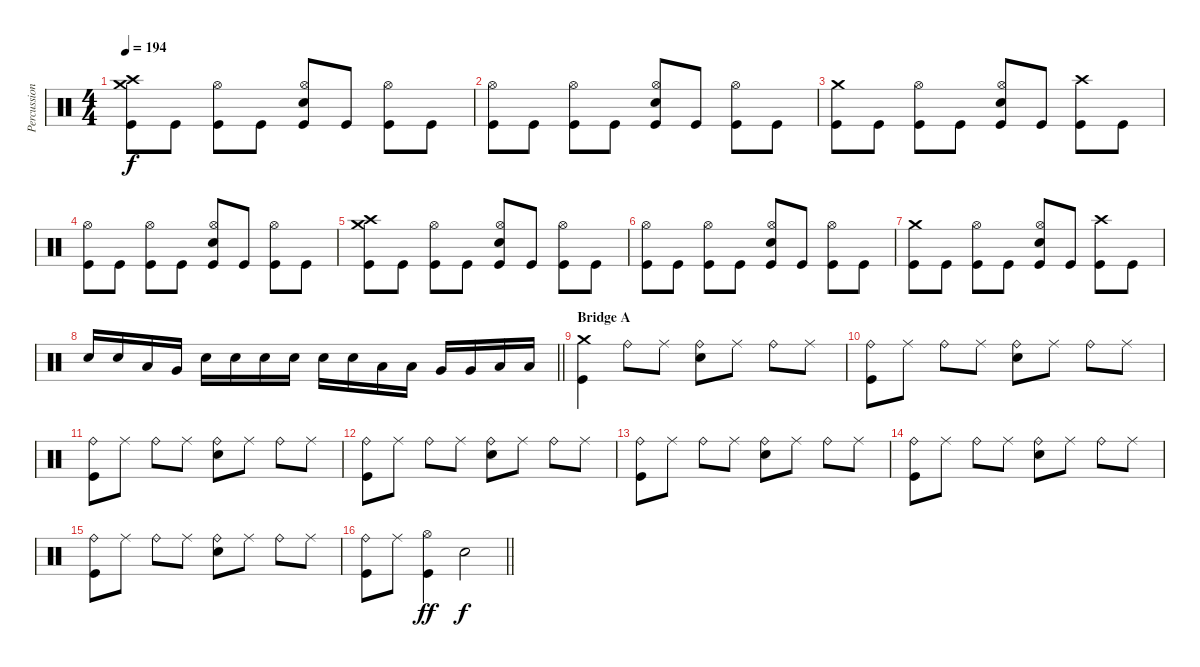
\track ("Percussion" "Percussion") {instrument percussion}
\staff {score}
\articulation defaults
\ts (4 4)
\tempo 194
\clef neutral
\ks c
("Crash medium (hit)" "Crash high (hit)" "Kick (hit)").8{dy f} "Kick (hit)".8 ("Hi-Hat (open)" "Kick (hit)").8 "Kick (hit)".8 ("Hi-Hat (open)" "Electric Snare (hit)" "Kick (hit)").8 "Kick (hit)".8 ("Hi-Hat (open)" "Kick (hit)").8 "Kick (hit)".8 |
("Hi-Hat (open)" "Kick (hit)").8 "Kick (hit)".8 ("Hi-Hat (open)" "Kick (hit)").8 "Kick (hit)".8 ("Hi-Hat (open)" "Electric Snare (hit)" "Kick (hit)").8 "Kick (hit)".8 ("Hi-Hat (open)" "Kick (hit)").8 "Kick (hit)".8 |
("Crash medium (hit)" "Kick (hit)").8 "Kick (hit)".8 ("Hi-Hat (open)" "Kick (hit)").8 "Kick (hit)".8 ("Hi-Hat (open)" "Electric Snare (hit)" "Kick (hit)").8 "Kick (hit)".8 ("Crash high (hit)" "Kick (hit)").8 "Kick (hit)".8 |
("Hi-Hat (open)" "Kick (hit)").8 "Kick (hit)".8 ("Hi-Hat (open)" "Kick (hit)").8 "Kick (hit)".8 ("Hi-Hat (open)" "Electric Snare (hit)" "Kick (hit)").8 "Kick (hit)".8 ("Hi-Hat (open)" "Kick (hit)").8 "Kick (hit)".8 |
("Crash medium (hit)" "Crash high (hit)" "Kick (hit)").8 "Kick (hit)".8 ("Hi-Hat (open)" "Kick (hit)").8 "Kick (hit)".8 ("Hi-Hat (open)" "Electric Snare (hit)" "Kick (hit)").8 "Kick (hit)".8 ("Hi-Hat (open)" "Kick (hit)").8 "Kick (hit)".8 |
("Hi-Hat (open)" "Kick (hit)").8 "Kick (hit)".8 ("Hi-Hat (open)" "Kick (hit)").8 "Kick (hit)".8 ("Hi-Hat (open)" "Electric Snare (hit)" "Kick (hit)").8 "Kick (hit)".8 ("Hi-Hat (open)" "Kick (hit)").8 "Kick (hit)".8 |
("Crash medium (hit)" "Kick (hit)").8 "Kick (hit)".8 ("Hi-Hat (open)" "Kick (hit)").8 "Kick (hit)".8 ("Hi-Hat (open)" "Electric Snare (hit)" "Kick (hit)").8 "Kick (hit)".8 ("Crash high (hit)" "Kick (hit)").8 "Kick (hit)".8 |
\barLineRight lightlight "Electric Snare (hit)".16 "Electric Snare (hit)".16 "Low Tom (hit)".16 "Very Low Tom (hit)".16 "Electric Snare (hit)".16 "Electric Snare (hit)".16 "Electric Snare (hit)".16 "Electric Snare (hit)".16 "Electric Snare (hit)".16 "Electric Snare (hit)".16 "Low Tom (hit)".16 "Low Tom (hit)".16 "Very Low Tom (hit)".16 "Very Low Tom (hit)".16 "Low Floor Tom (hit)".16 "Low Floor Tom (hit)".16
|
\section ("" "Bridge A")
("Crash medium (hit)" "Kick (hit)").4 "Ride (bell)".8 "Ride (middle)".8 ("Ride (bell)" "Electric Snare (hit)").8 "Ride (middle)".8 "Ride (bell)".8 "Ride (middle)".8 |
("Ride (bell)" "Kick (hit)").8 "Ride (middle)".8 "Ride (bell)".8 "Ride (middle)".8 ("Ride (bell)" "Electric Snare (hit)").8 "Ride (middle)".8 "Ride (bell)".8 "Ride (middle)".8 |
("Ride (bell)" "Kick (hit)").8 "Ride (middle)".8 "Ride (bell)".8 "Ride (middle)".8 ("Ride (bell)" "Electric Snare (hit)").8 "Ride (middle)".8 "Ride (bell)".8 "Ride (middle)".8 |
("Ride (bell)" "Kick (hit)").8 "Ride (middle)".8 "Ride (bell)".8 "Ride (middle)".8 ("Ride (bell)" "Electric Snare (hit)").8 "Ride (middle)".8 "Ride (bell)".8 "Ride (middle)".8 |
("Ride (bell)" "Kick (hit)").8 "Ride (middle)".8 "Ride (bell)".8 "Ride (middle)".8 ("Ride (bell)" "Electric Snare (hit)").8 "Ride (middle)".8 "Ride (bell)".8 "Ride (middle)".8 |
("Ride (bell)" "Kick (hit)").8 "Ride (middle)".8 "Ride (bell)".8 "Ride (middle)".8 ("Ride (bell)" "Electric Snare (hit)").8 "Ride (middle)".8 "Ride (bell)".8 "Ride (middle)".8 |
("Ride (bell)" "Kick (hit)").8 "Ride (middle)".8 "Ride (bell)".8 "Ride (middle)".8 ("Ride (bell)" "Electric Snare (hit)").8 "Ride (middle)".8 "Ride (bell)".8 "Ride (middle)".8 |
\barLineRight lightlight
("Ride (bell)" "Kick (hit)").8 "Ride (middle)".8 ("Hi-Hat (open)" "Kick (hit)").4{dy ff} "Electric Snare (hit)".2{dy f}
